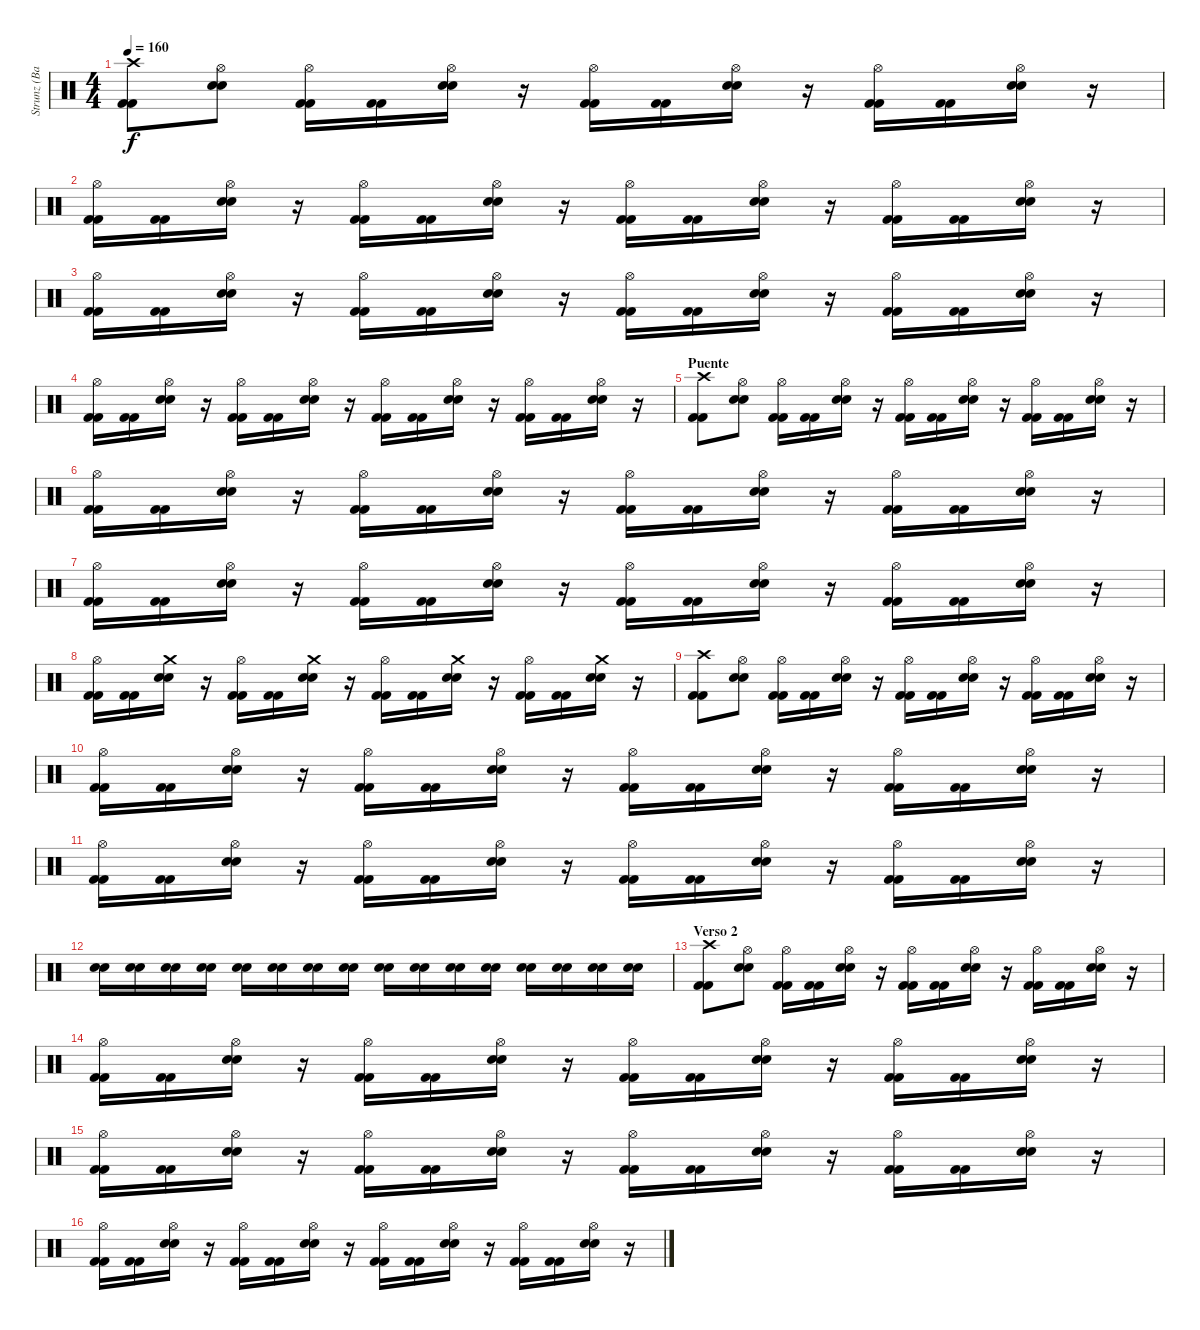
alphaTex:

\track ("Strunz (Bateria)" "Strunz (Ba") {instrument percussion}
\staff {score}
\articulation defaults
\ts (4 4)
\tempo 160
\clef neutral
\ks c
("Crash high (hit)" "Kick (hit) 2" "Kick (hit) 2").8{dy f} ("Hi-Hat (open)" "Snare (hit) 2" "Snare (hit) 2").8 ("Hi-Hat (open)" "Kick (hit) 2" "Kick (hit) 2").16 ("Kick (hit) 2" "Kick (hit) 2").16 ("Hi-Hat (open)" "Snare (hit) 2" "Snare (hit) 2").16 r.16 ("Hi-Hat (open)" "Kick (hit) 2" "Kick (hit) 2").16 ("Kick (hit) 2" "Kick (hit) 2").16 ("Hi-Hat (open)" "Snare (hit) 2" "Snare (hit) 2").16 r.16 ("Hi-Hat (open)" "Kick (hit) 2" "Kick (hit) 2").16 ("Kick (hit) 2" "Kick (hit) 2").16 ("Hi-Hat (open)" "Snare (hit) 2" "Snare (hit) 2").16 r.16 |
("Hi-Hat (open)" "Kick (hit) 2" "Kick (hit) 2").16 ("Kick (hit) 2" "Kick (hit) 2").16 ("Hi-Hat (open)" "Snare (hit) 2" "Snare (hit) 2").16 r.16 ("Hi-Hat (open)" "Kick (hit) 2" "Kick (hit) 2").16 ("Kick (hit) 2" "Kick (hit) 2").16 ("Hi-Hat (open)" "Snare (hit) 2" "Snare (hit) 2").16 r.16 ("Hi-Hat (open)" "Kick (hit) 2" "Kick (hit) 2").16 ("Kick (hit) 2" "Kick (hit) 2").16 ("Hi-Hat (open)" "Snare (hit) 2" "Snare (hit) 2").16 r.16 ("Hi-Hat (open)" "Kick (hit) 2" "Kick (hit) 2").16 ("Kick (hit) 2" "Kick (hit) 2").16 ("Hi-Hat (open)" "Snare (hit) 2" "Snare (hit) 2").16 r.16 |
("Hi-Hat (open)" "Kick (hit) 2" "Kick (hit) 2").16 ("Kick (hit) 2" "Kick (hit) 2").16 ("Hi-Hat (open)" "Snare (hit) 2" "Snare (hit) 2").16 r.16 ("Hi-Hat (open)" "Kick (hit) 2" "Kick (hit) 2").16 ("Kick (hit) 2" "Kick (hit) 2").16 ("Hi-Hat (open)" "Snare (hit) 2" "Snare (hit) 2").16 r.16 ("Hi-Hat (open)" "Kick (hit) 2" "Kick (hit) 2").16 ("Kick (hit) 2" "Kick (hit) 2").16 ("Hi-Hat (open)" "Snare (hit) 2" "Snare (hit) 2").16 r.16 ("Hi-Hat (open)" "Kick (hit) 2" "Kick (hit) 2").16 ("Kick (hit) 2" "Kick (hit) 2").16 ("Hi-Hat (open)" "Snare (hit) 2" "Snare (hit) 2").16 r.16 |
("Hi-Hat (open)" "Kick (hit) 2" "Kick (hit) 2").16 ("Kick (hit) 2" "Kick (hit) 2").16 ("Hi-Hat (open)" "Snare (hit) 2" "Snare (hit) 2").16 r.16 ("Hi-Hat (open)" "Kick (hit) 2" "Kick (hit) 2").16 ("Kick (hit) 2" "Kick (hit) 2").16 ("Hi-Hat (open)" "Snare (hit) 2" "Snare (hit) 2").16 r.16 ("Hi-Hat (open)" "Kick (hit) 2" "Kick (hit) 2").16 ("Kick (hit) 2" "Kick (hit) 2").16 ("Hi-Hat (open)" "Snare (hit) 2" "Snare (hit) 2").16 r.16 ("Hi-Hat (open)" "Kick (hit) 2" "Kick (hit) 2").16 ("Kick (hit) 2" "Kick (hit) 2").16 ("Hi-Hat (open)" "Snare (hit) 2" "Snare (hit) 2").16 r.16 |
\section ("" "Puente")
("Crash high (hit)" "Kick (hit) 2" "Kick (hit) 2").8 ("Hi-Hat (open)" "Snare (hit) 2" "Snare (hit) 2").8 ("Hi-Hat (open)" "Kick (hit) 2" "Kick (hit) 2").16 ("Kick (hit) 2" "Kick (hit) 2").16 ("Hi-Hat (open)" "Snare (hit) 2" "Snare (hit) 2").16 r.16 ("Hi-Hat (open)" "Kick (hit) 2" "Kick (hit) 2").16 ("Kick (hit) 2" "Kick (hit) 2").16 ("Hi-Hat (open)" "Snare (hit) 2" "Snare (hit) 2").16 r.16 ("Hi-Hat (open)" "Kick (hit) 2" "Kick (hit) 2").16 ("Kick (hit) 2" "Kick (hit) 2").16 ("Hi-Hat (open)" "Snare (hit) 2" "Snare (hit) 2").16 r.16 |
("Hi-Hat (open)" "Kick (hit) 2" "Kick (hit) 2").16 ("Kick (hit) 2" "Kick (hit) 2").16 ("Hi-Hat (open)" "Snare (hit) 2" "Snare (hit) 2").16 r.16 ("Hi-Hat (open)" "Kick (hit) 2" "Kick (hit) 2").16 ("Kick (hit) 2" "Kick (hit) 2").16 ("Hi-Hat (open)" "Snare (hit) 2" "Snare (hit) 2").16 r.16 ("Hi-Hat (open)" "Kick (hit) 2" "Kick (hit) 2").16 ("Kick (hit) 2" "Kick (hit) 2").16 ("Hi-Hat (open)" "Snare (hit) 2" "Snare (hit) 2").16 r.16 ("Hi-Hat (open)" "Kick (hit) 2" "Kick (hit) 2").16 ("Kick (hit) 2" "Kick (hit) 2").16 ("Hi-Hat (open)" "Snare (hit) 2" "Snare (hit) 2").16 r.16 |
("Hi-Hat (open)" "Kick (hit) 2" "Kick (hit) 2").16 ("Kick (hit) 2" "Kick (hit) 2").16 ("Hi-Hat (open)" "Snare (hit) 2" "Snare (hit) 2").16 r.16 ("Hi-Hat (open)" "Kick (hit) 2" "Kick (hit) 2").16 ("Kick (hit) 2" "Kick (hit) 2").16 ("Hi-Hat (open)" "Snare (hit) 2" "Snare (hit) 2").16 r.16 ("Hi-Hat (open)" "Kick (hit) 2" "Kick (hit) 2").16 ("Kick (hit) 2" "Kick (hit) 2").16 ("Hi-Hat (open)" "Snare (hit) 2" "Snare (hit) 2").16 r.16 ("Hi-Hat (open)" "Kick (hit) 2" "Kick (hit) 2").16 ("Kick (hit) 2" "Kick (hit) 2").16 ("Hi-Hat (open)" "Snare (hit) 2" "Snare (hit) 2").16 r.16 |
("Hi-Hat (open)" "Kick (hit) 2" "Kick (hit) 2").16 ("Kick (hit) 2" "Kick (hit) 2").16 ("Crash medium (hit)" "Snare (hit) 2" "Snare (hit) 2").16 r.16 ("Hi-Hat (open)" "Kick (hit) 2" "Kick (hit) 2").16 ("Kick (hit) 2" "Kick (hit) 2").16 ("Crash medium (hit)" "Snare (hit) 2" "Snare (hit) 2").16 r.16 ("Hi-Hat (open)" "Kick (hit) 2" "Kick (hit) 2").16 ("Kick (hit) 2" "Kick (hit) 2").16 ("Crash medium (hit)" "Snare (hit) 2" "Snare (hit) 2").16 r.16 ("Hi-Hat (open)" "Kick (hit) 2" "Kick (hit) 2").16 ("Kick (hit) 2" "Kick (hit) 2").16 ("Crash medium (hit)" "Snare (hit) 2" "Snare (hit) 2").16 r.16 |
("Crash high (hit)" "Kick (hit) 2" "Kick (hit) 2").8 ("Hi-Hat (open)" "Snare (hit) 2" "Snare (hit) 2").8 ("Hi-Hat (open)" "Kick (hit) 2" "Kick (hit) 2").16 ("Kick (hit) 2" "Kick (hit) 2").16 ("Hi-Hat (open)" "Snare (hit) 2" "Snare (hit) 2").16 r.16 ("Hi-Hat (open)" "Kick (hit) 2" "Kick (hit) 2").16 ("Kick (hit) 2" "Kick (hit) 2").16 ("Hi-Hat (open)" "Snare (hit) 2" "Snare (hit) 2").16 r.16 ("Hi-Hat (open)" "Kick (hit) 2" "Kick (hit) 2").16 ("Kick (hit) 2" "Kick (hit) 2").16 ("Hi-Hat (open)" "Snare (hit) 2" "Snare (hit) 2").16 r.16 |
("Hi-Hat (open)" "Kick (hit) 2" "Kick (hit) 2").16 ("Kick (hit) 2" "Kick (hit) 2").16 ("Hi-Hat (open)" "Snare (hit) 2" "Snare (hit) 2").16 r.16 ("Hi-Hat (open)" "Kick (hit) 2" "Kick (hit) 2").16 ("Kick (hit) 2" "Kick (hit) 2").16 ("Hi-Hat (open)" "Snare (hit) 2" "Snare (hit) 2").16 r.16 ("Hi-Hat (open)" "Kick (hit) 2" "Kick (hit) 2").16 ("Kick (hit) 2" "Kick (hit) 2").16 ("Hi-Hat (open)" "Snare (hit) 2" "Snare (hit) 2").16 r.16 ("Hi-Hat (open)" "Kick (hit) 2" "Kick (hit) 2").16 ("Kick (hit) 2" "Kick (hit) 2").16 ("Hi-Hat (open)" "Snare (hit) 2" "Snare (hit) 2").16 r.16 |
("Hi-Hat (open)" "Kick (hit) 2" "Kick (hit) 2").16 ("Kick (hit) 2" "Kick (hit) 2").16 ("Hi-Hat (open)" "Snare (hit) 2" "Snare (hit) 2").16 r.16 ("Hi-Hat (open)" "Kick (hit) 2" "Kick (hit) 2").16 ("Kick (hit) 2" "Kick (hit) 2").16 ("Hi-Hat (open)" "Snare (hit) 2" "Snare (hit) 2").16 r.16 ("Hi-Hat (open)" "Kick (hit) 2" "Kick (hit) 2").16 ("Kick (hit) 2" "Kick (hit) 2").16 ("Hi-Hat (open)" "Snare (hit) 2" "Snare (hit) 2").16 r.16 ("Hi-Hat (open)" "Kick (hit) 2" "Kick (hit) 2").16 ("Kick (hit) 2" "Kick (hit) 2").16 ("Hi-Hat (open)" "Snare (hit) 2" "Snare (hit) 2").16 r.16 |
("Snare (hit) 2" "Snare (hit) 2").16 ("Snare (hit) 2" "Snare (hit) 2").16 ("Snare (hit) 2" "Snare (hit) 2").16 ("Snare (hit) 2" "Snare (hit) 2").16 ("Snare (hit) 2" "Snare (hit) 2").16 ("Snare (hit) 2" "Snare (hit) 2").16 ("Snare (hit) 2" "Snare (hit) 2").16 ("Snare (hit) 2" "Snare (hit) 2").16 ("Snare (hit) 2" "Snare (hit) 2").16 ("Snare (hit) 2" "Snare (hit) 2").16 ("Snare (hit) 2" "Snare (hit) 2").16 ("Snare (hit) 2" "Snare (hit) 2").16 ("Snare (hit) 2" "Snare (hit) 2").16 ("Snare (hit) 2" "Snare (hit) 2").16 ("Snare (hit) 2" "Snare (hit) 2").16 ("Snare (hit) 2" "Snare (hit) 2").16 |
\section ("" "Verso 2")
("Crash high (hit)" "Kick (hit) 2" "Kick (hit) 2").8 ("Hi-Hat (open)" "Snare (hit) 2" "Snare (hit) 2").8 ("Hi-Hat (open)" "Kick (hit) 2" "Kick (hit) 2").16 ("Kick (hit) 2" "Kick (hit) 2").16 ("Hi-Hat (open)" "Snare (hit) 2" "Snare (hit) 2").16 r.16 ("Hi-Hat (open)" "Kick (hit) 2" "Kick (hit) 2").16 ("Kick (hit) 2" "Kick (hit) 2").16 ("Hi-Hat (open)" "Snare (hit) 2" "Snare (hit) 2").16 r.16 ("Hi-Hat (open)" "Kick (hit) 2" "Kick (hit) 2").16 ("Kick (hit) 2" "Kick (hit) 2").16 ("Hi-Hat (open)" "Snare (hit) 2" "Snare (hit) 2").16 r.16 |
("Hi-Hat (open)" "Kick (hit) 2" "Kick (hit) 2").16 ("Kick (hit) 2" "Kick (hit) 2").16 ("Hi-Hat (open)" "Snare (hit) 2" "Snare (hit) 2").16 r.16 ("Hi-Hat (open)" "Kick (hit) 2" "Kick (hit) 2").16 ("Kick (hit) 2" "Kick (hit) 2").16 ("Hi-Hat (open)" "Snare (hit) 2" "Snare (hit) 2").16 r.16 ("Hi-Hat (open)" "Kick (hit) 2" "Kick (hit) 2").16 ("Kick (hit) 2" "Kick (hit) 2").16 ("Hi-Hat (open)" "Snare (hit) 2" "Snare (hit) 2").16 r.16 ("Hi-Hat (open)" "Kick (hit) 2" "Kick (hit) 2").16 ("Kick (hit) 2" "Kick (hit) 2").16 ("Hi-Hat (open)" "Snare (hit) 2" "Snare (hit) 2").16 r.16 |
("Hi-Hat (open)" "Kick (hit) 2" "Kick (hit) 2").16 ("Kick (hit) 2" "Kick (hit) 2").16 ("Hi-Hat (open)" "Snare (hit) 2" "Snare (hit) 2").16 r.16 ("Hi-Hat (open)" "Kick (hit) 2" "Kick (hit) 2").16 ("Kick (hit) 2" "Kick (hit) 2").16 ("Hi-Hat (open)" "Snare (hit) 2" "Snare (hit) 2").16 r.16 ("Hi-Hat (open)" "Kick (hit) 2" "Kick (hit) 2").16 ("Kick (hit) 2" "Kick (hit) 2").16 ("Hi-Hat (open)" "Snare (hit) 2" "Snare (hit) 2").16 r.16 ("Hi-Hat (open)" "Kick (hit) 2" "Kick (hit) 2").16 ("Kick (hit) 2" "Kick (hit) 2").16 ("Hi-Hat (open)" "Snare (hit) 2" "Snare (hit) 2").16 r.16 |
("Hi-Hat (open)" "Kick (hit) 2" "Kick (hit) 2").16 ("Kick (hit) 2" "Kick (hit) 2").16 ("Hi-Hat (open)" "Snare (hit) 2" "Snare (hit) 2").16 r.16 ("Hi-Hat (open)" "Kick (hit) 2" "Kick (hit) 2").16 ("Kick (hit) 2" "Kick (hit) 2").16 ("Hi-Hat (open)" "Snare (hit) 2" "Snare (hit) 2").16 r.16 ("Hi-Hat (open)" "Kick (hit) 2" "Kick (hit) 2").16 ("Kick (hit) 2" "Kick (hit) 2").16 ("Hi-Hat (open)" "Snare (hit) 2" "Snare (hit) 2").16 r.16 ("Hi-Hat (open)" "Kick (hit) 2" "Kick (hit) 2").16 ("Kick (hit) 2" "Kick (hit) 2").16 ("Hi-Hat (open)" "Snare (hit) 2" "Snare (hit) 2").16 r.16
